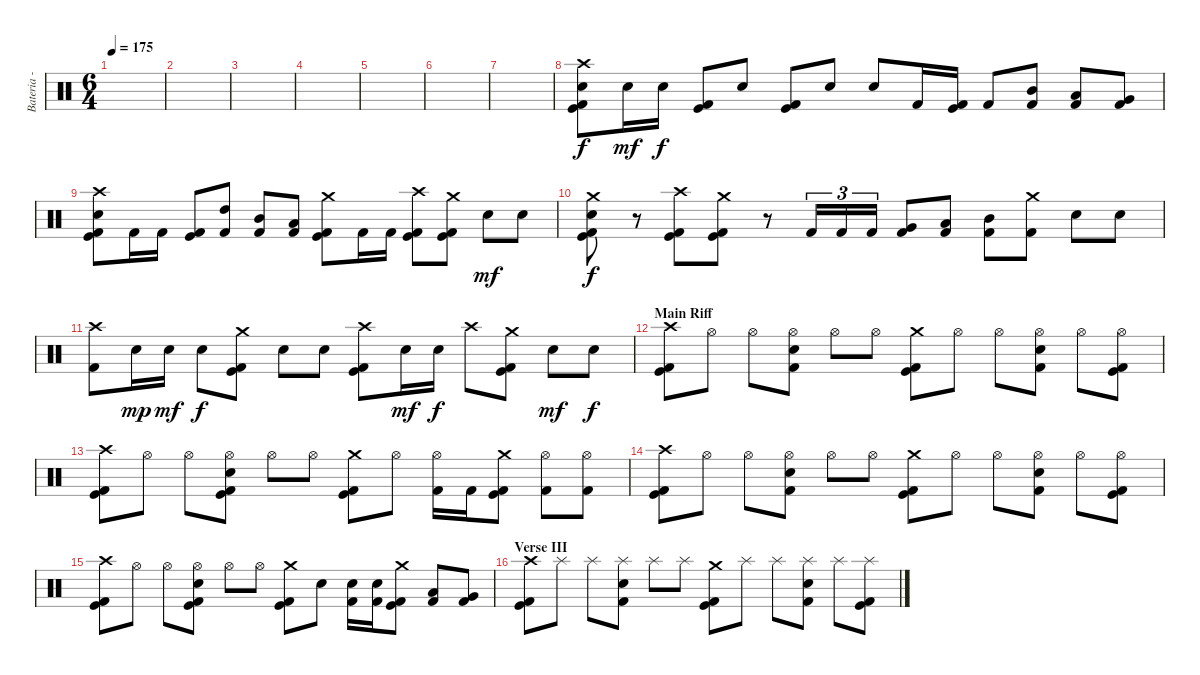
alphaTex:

\track ("Bateria - Drums" "Bateria - ") {instrument percussion}
\staff {score}
\articulation defaults
\ts (6 4)
\tempo 175
\clef neutral
\ks c
|
|
|
|
|
|
|
("Crash high (hit)" "Snare (hit) 2" "Kick (hit)" "Kick (hit) 2").8 "Electric Snare (hit)".16{dy mf} "Electric Snare (hit)".16{dy f} ("Kick (hit)" "Kick (hit) 2").8 "Snare (hit) 2".8 ("Kick (hit)" "Kick (hit) 2").8 "Snare (hit) 2".8 "Snare (hit) 2".8 "Kick (hit) 2".16 ("Kick (hit)" "Kick (hit) 2").16 "Kick (hit) 2".8 ("Mid Tom (hit)" "Kick (hit) 2").8 ("Low Tom (hit)" "Kick (hit) 2").8 ("Very Low Tom (hit)" "Kick (hit) 2").8 |
("Crash high (hit)" "Snare (hit) 2" "Kick (hit)" "Kick (hit) 2").8 "Kick (hit) 2".16 "Kick (hit) 2".16 ("Kick (hit)" "Kick (hit) 2").8 ("High Tom (hit)" "Kick (hit) 2").8 ("Mid Tom (hit)" "Kick (hit) 2").8 ("Low Tom (hit)" "Kick (hit) 2").8 ("Crash medium (hit)" "Kick (hit)" "Kick (hit) 2").8 "Kick (hit) 2".16 "Kick (hit) 2".16 ("Crash high (hit)" "Kick (hit)" "Kick (hit) 2").8 ("Crash medium (hit)" "Kick (hit)" "Kick (hit) 2").8 "Snare (hit) 2".8{dy mf} "Snare (hit) 2".8 |
("Crash medium (hit)" "Snare (hit) 2" "Kick (hit)" "Kick (hit) 2").8{dy f} r.8 ("Crash high (hit)" "Kick (hit)" "Kick (hit) 2").8 ("Crash medium (hit)" "Kick (hit)" "Kick (hit) 2").8 r.8 "Kick (hit) 2".16{tu (3 2)} "Kick (hit) 2".16{tu (3 2)} "Kick (hit) 2".16{tu (3 2)} ("Very Low Tom (hit)" "Kick (hit) 2").8 ("Low Tom (hit)" "Kick (hit) 2").8 ("Mid Tom (hit)" "Kick (hit) 2").8 ("Crash medium (hit)" "Kick (hit) 2").8 "Snare (hit) 2".8 "Snare (hit) 2".8 |
("Crash high (hit)" "Kick (hit) 2").8 "Snare (hit) 2".16{dy mp} "Snare (hit) 2".16{dy mf} "Snare (hit) 2".8{dy f} ("Crash medium (hit)" "Kick (hit)" "Kick (hit) 2").8 "Snare (hit) 2".8 "Snare (hit) 2".8 ("Crash high (hit)" "Kick (hit)" "Kick (hit) 2").8 "Electric Snare (hit)".16{dy mf} "Electric Snare (hit)".16{dy f} "Crash high (hit)".8 ("Crash medium (hit)" "Kick (hit)" "Kick (hit) 2").8 "Snare (hit) 2".8{dy mf} "Snare (hit) 2".8{dy f} |
\section ("" "Main Riff")
("Crash high (hit)" "Kick (hit)" "Kick (hit) 2").8 "Hi-Hat (open)".8 "Hi-Hat (open)".8 ("Hi-Hat (open)" "Snare (hit) 2" "Kick (hit) 2").8 "Hi-Hat (open)".8 "Hi-Hat (open)".8 ("Crash medium (hit)" "Kick (hit)" "Kick (hit) 2").8 "Hi-Hat (open)".8 "Hi-Hat (open)".8 ("Hi-Hat (open)" "Snare (hit) 2" "Kick (hit) 2").8 "Hi-Hat (open)".8 ("Hi-Hat (open)" "Kick (hit)" "Kick (hit) 2").8 |
("Crash high (hit)" "Kick (hit)" "Kick (hit) 2").8 "Hi-Hat (open)".8 "Hi-Hat (open)".8 ("Hi-Hat (open)" "Snare (hit) 2" "Kick (hit)" "Kick (hit) 2").8 "Hi-Hat (open)".8 "Hi-Hat (open)".8 ("Crash medium (hit)" "Kick (hit)" "Kick (hit) 2").8 "Hi-Hat (open)".8 ("Hi-Hat (open)" "Kick (hit) 2").16 "Kick (hit) 2".16 ("Crash medium (hit)" "Kick (hit)" "Kick (hit) 2").8 ("Hi-Hat (open)" "Kick (hit) 2").8 ("Hi-Hat (open)" "Kick (hit) 2").8 |
("Crash high (hit)" "Kick (hit)" "Kick (hit) 2").8 "Hi-Hat (open)".8 "Hi-Hat (open)".8 ("Hi-Hat (open)" "Snare (hit) 2" "Kick (hit) 2").8 "Hi-Hat (open)".8 "Hi-Hat (open)".8 ("Crash medium (hit)" "Kick (hit)" "Kick (hit) 2").8 "Hi-Hat (open)".8 "Hi-Hat (open)".8 ("Hi-Hat (open)" "Snare (hit) 2" "Kick (hit) 2").8 "Hi-Hat (open)".8 ("Hi-Hat (open)" "Kick (hit)" "Kick (hit) 2").8 |
("Crash high (hit)" "Kick (hit)" "Kick (hit) 2").8 "Hi-Hat (open)".8 "Hi-Hat (open)".8 ("Hi-Hat (open)" "Snare (hit) 2" "Kick (hit)" "Kick (hit) 2").8 "Hi-Hat (open)".8 "Hi-Hat (open)".8 ("Crash medium (hit)" "Kick (hit)" "Kick (hit) 2").8 "Snare (hit) 2".8 ("Snare (hit) 2" "Kick (hit) 2").16 ("Snare (hit) 2" "Kick (hit) 2").16 ("Crash medium (hit)" "Kick (hit)" "Kick (hit) 2").8 ("Low Tom (hit)" "Kick (hit) 2").8 ("Very Low Tom (hit)" "Kick (hit) 2").8 |
\section ("" "Verse III")
("Crash high (hit)" "Kick (hit)" "Kick (hit) 2").8 "Splash (hit)".8 "Splash (hit)".8 ("Splash (hit)" "Snare (hit) 2" "Kick (hit) 2").8 "Splash (hit)".8 "Splash (hit)".8 ("Crash medium (hit)" "Kick (hit)" "Kick (hit) 2").8 "Splash (hit)".8 "Splash (hit)".8 ("Splash (hit)" "Snare (hit) 2" "Kick (hit) 2").8 "Splash (hit)".8 ("Splash (hit)" "Kick (hit)" "Kick (hit) 2").8
